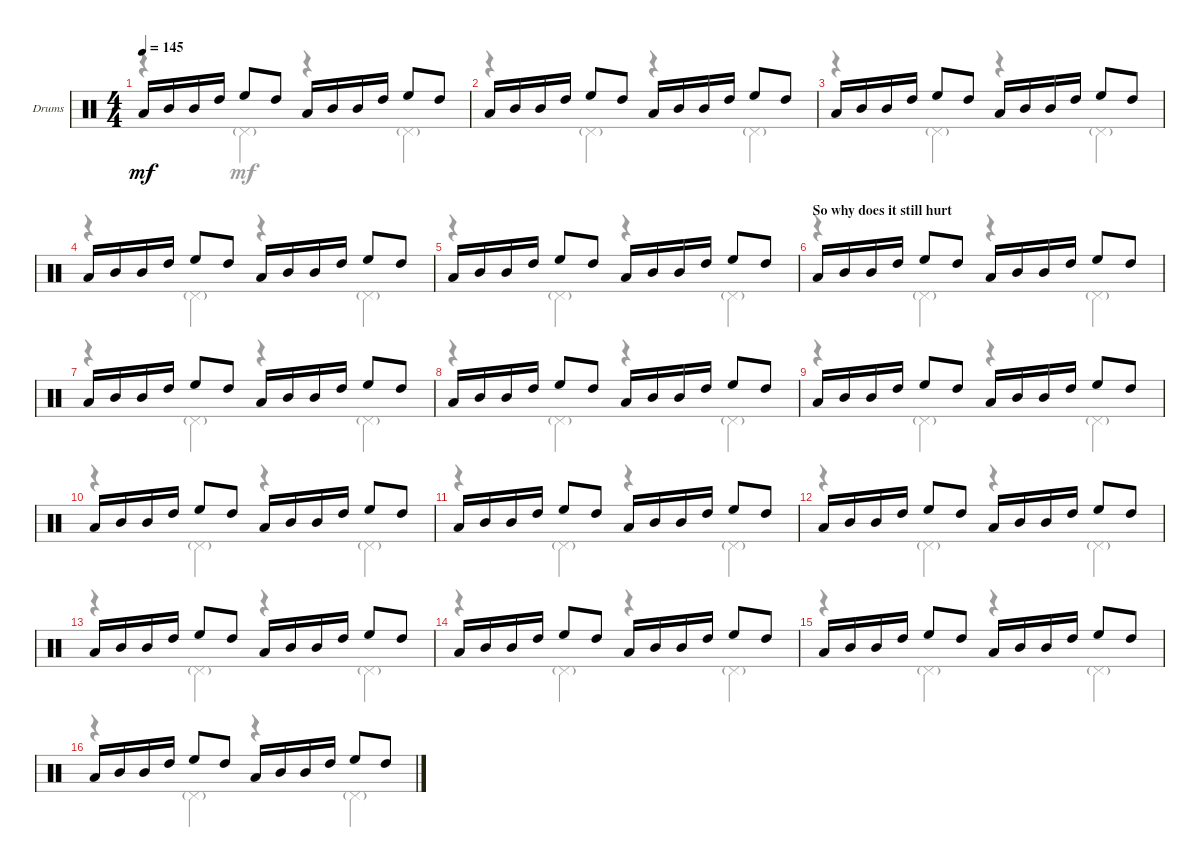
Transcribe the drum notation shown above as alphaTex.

\defaultSystemsLayout 4
\bracketExtendMode groupsimilarinstruments
\firstSystemTrackNameOrientation horizontal
\otherSystemsTrackNameOrientation horizontal
\track ("Drumkit" "Drums") {instrument percussion}
\staff {score}
\articulation defaults
\voice
\ts (4 4)
\tempo 145
\clef neutral
\ks c "Low Tom (hit)".16{dy mf} "Mid Tom (hit)".16 "Mid Tom (hit)".16 "High Tom (hit)".16 "High Floor Tom (hit)".8 "High Tom (hit)".8 "Low Tom (hit)".16 "Mid Tom (hit)".16 "Mid Tom (hit)".16 "High Tom (hit)".16 "High Floor Tom (hit)".8 "High Tom (hit)".8
|
"Low Tom (hit)".16 "Mid Tom (hit)".16 "Mid Tom (hit)".16 "High Tom (hit)".16 "High Floor Tom (hit)".8 "High Tom (hit)".8 "Low Tom (hit)".16 "Mid Tom (hit)".16 "Mid Tom (hit)".16 "High Tom (hit)".16 "High Floor Tom (hit)".8 "High Tom (hit)".8 |
"Low Tom (hit)".16 "Mid Tom (hit)".16 "Mid Tom (hit)".16 "High Tom (hit)".16 "High Floor Tom (hit)".8 "High Tom (hit)".8 "Low Tom (hit)".16 "Mid Tom (hit)".16 "Mid Tom (hit)".16 "High Tom (hit)".16 "High Floor Tom (hit)".8 "High Tom (hit)".8 |
"Low Tom (hit)".16 "Mid Tom (hit)".16 "Mid Tom (hit)".16 "High Tom (hit)".16 "High Floor Tom (hit)".8 "High Tom (hit)".8 "Low Tom (hit)".16 "Mid Tom (hit)".16 "Mid Tom (hit)".16 "High Tom (hit)".16 "High Floor Tom (hit)".8 "High Tom (hit)".8 |
"Low Tom (hit)".16 "Mid Tom (hit)".16 "Mid Tom (hit)".16 "High Tom (hit)".16 "High Floor Tom (hit)".8 "High Tom (hit)".8 "Low Tom (hit)".16 "Mid Tom (hit)".16 "Mid Tom (hit)".16 "High Tom (hit)".16 "High Floor Tom (hit)".8 "High Tom (hit)".8 |
\section ("" "So why does it still hurt")
"Low Tom (hit)".16 "Mid Tom (hit)".16 "Mid Tom (hit)".16 "High Tom (hit)".16 "High Floor Tom (hit)".8 "High Tom (hit)".8 "Low Tom (hit)".16 "Mid Tom (hit)".16 "Mid Tom (hit)".16 "High Tom (hit)".16 "High Floor Tom (hit)".8 "High Tom (hit)".8 |
"Low Tom (hit)".16 "Mid Tom (hit)".16 "Mid Tom (hit)".16 "High Tom (hit)".16 "High Floor Tom (hit)".8 "High Tom (hit)".8 "Low Tom (hit)".16 "Mid Tom (hit)".16 "Mid Tom (hit)".16 "High Tom (hit)".16 "High Floor Tom (hit)".8 "High Tom (hit)".8 |
"Low Tom (hit)".16 "Mid Tom (hit)".16 "Mid Tom (hit)".16 "High Tom (hit)".16 "High Floor Tom (hit)".8 "High Tom (hit)".8 "Low Tom (hit)".16 "Mid Tom (hit)".16 "Mid Tom (hit)".16 "High Tom (hit)".16 "High Floor Tom (hit)".8 "High Tom (hit)".8 |
"Low Tom (hit)".16 "Mid Tom (hit)".16 "Mid Tom (hit)".16 "High Tom (hit)".16 "High Floor Tom (hit)".8 "High Tom (hit)".8 "Low Tom (hit)".16 "Mid Tom (hit)".16 "Mid Tom (hit)".16 "High Tom (hit)".16 "High Floor Tom (hit)".8 "High Tom (hit)".8 |
"Low Tom (hit)".16 "Mid Tom (hit)".16 "Mid Tom (hit)".16 "High Tom (hit)".16 "High Floor Tom (hit)".8 "High Tom (hit)".8 "Low Tom (hit)".16 "Mid Tom (hit)".16 "Mid Tom (hit)".16 "High Tom (hit)".16 "High Floor Tom (hit)".8 "High Tom (hit)".8 |
"Low Tom (hit)".16 "Mid Tom (hit)".16 "Mid Tom (hit)".16 "High Tom (hit)".16 "High Floor Tom (hit)".8 "High Tom (hit)".8 "Low Tom (hit)".16 "Mid Tom (hit)".16 "Mid Tom (hit)".16 "High Tom (hit)".16 "High Floor Tom (hit)".8 "High Tom (hit)".8 |
"Low Tom (hit)".16 "Mid Tom (hit)".16 "Mid Tom (hit)".16 "High Tom (hit)".16 "High Floor Tom (hit)".8 "High Tom (hit)".8 "Low Tom (hit)".16 "Mid Tom (hit)".16 "Mid Tom (hit)".16 "High Tom (hit)".16 "High Floor Tom (hit)".8 "High Tom (hit)".8 |
"Low Tom (hit)".16 "Mid Tom (hit)".16 "Mid Tom (hit)".16 "High Tom (hit)".16 "High Floor Tom (hit)".8 "High Tom (hit)".8 "Low Tom (hit)".16 "Mid Tom (hit)".16 "Mid Tom (hit)".16 "High Tom (hit)".16 "High Floor Tom (hit)".8 "High Tom (hit)".8 |
"Low Tom (hit)".16 "Mid Tom (hit)".16 "Mid Tom (hit)".16 "High Tom (hit)".16 "High Floor Tom (hit)".8 "High Tom (hit)".8 "Low Tom (hit)".16 "Mid Tom (hit)".16 "Mid Tom (hit)".16 "High Tom (hit)".16 "High Floor Tom (hit)".8 "High Tom (hit)".8 |
"Low Tom (hit)".16 "Mid Tom (hit)".16 "Mid Tom (hit)".16 "High Tom (hit)".16 "High Floor Tom (hit)".8 "High Tom (hit)".8 "Low Tom (hit)".16 "Mid Tom (hit)".16 "Mid Tom (hit)".16 "High Tom (hit)".16 "High Floor Tom (hit)".8 "High Tom (hit)".8 |
"Low Tom (hit)".16 "Mid Tom (hit)".16 "Mid Tom (hit)".16 "High Tom (hit)".16 "High Floor Tom (hit)".8 "High Tom (hit)".8 "Low Tom (hit)".16 "Mid Tom (hit)".16 "Mid Tom (hit)".16 "High Tom (hit)".16 "High Floor Tom (hit)".8 "High Tom (hit)".8
\voice
\clef neutral
\ottava regular
\simile none
\ks c
r.4{dy mf} "Pedal Hi-Hat (hit)"{g}.4 r.4 "Pedal Hi-Hat (hit)"{g}.4 |
r.4 "Pedal Hi-Hat (hit)"{g}.4 r.4 "Pedal Hi-Hat (hit)"{g}.4 |
r.4 "Pedal Hi-Hat (hit)"{g}.4 r.4 "Pedal Hi-Hat (hit)"{g}.4 |
r.4 "Pedal Hi-Hat (hit)"{g}.4 r.4 "Pedal Hi-Hat (hit)"{g}.4 |
r.4 "Pedal Hi-Hat (hit)"{g}.4 r.4 "Pedal Hi-Hat (hit)"{g}.4 |
r.4 "Pedal Hi-Hat (hit)"{g}.4 r.4 "Pedal Hi-Hat (hit)"{g}.4 |
r.4 "Pedal Hi-Hat (hit)"{g}.4 r.4 "Pedal Hi-Hat (hit)"{g}.4 |
r.4 "Pedal Hi-Hat (hit)"{g}.4 r.4 "Pedal Hi-Hat (hit)"{g}.4 |
r.4 "Pedal Hi-Hat (hit)"{g}.4 r.4 "Pedal Hi-Hat (hit)"{g}.4 |
r.4 "Pedal Hi-Hat (hit)"{g}.4 r.4 "Pedal Hi-Hat (hit)"{g}.4 |
r.4 "Pedal Hi-Hat (hit)"{g}.4 r.4 "Pedal Hi-Hat (hit)"{g}.4 |
r.4 "Pedal Hi-Hat (hit)"{g}.4 r.4 "Pedal Hi-Hat (hit)"{g}.4 |
r.4 "Pedal Hi-Hat (hit)"{g}.4 r.4 "Pedal Hi-Hat (hit)"{g}.4 |
r.4 "Pedal Hi-Hat (hit)"{g}.4 r.4 "Pedal Hi-Hat (hit)"{g}.4 |
r.4 "Pedal Hi-Hat (hit)"{g}.4 r.4 "Pedal Hi-Hat (hit)"{g}.4 |
r.4 "Pedal Hi-Hat (hit)"{g}.4 r.4 "Pedal Hi-Hat (hit)"{g}.4
